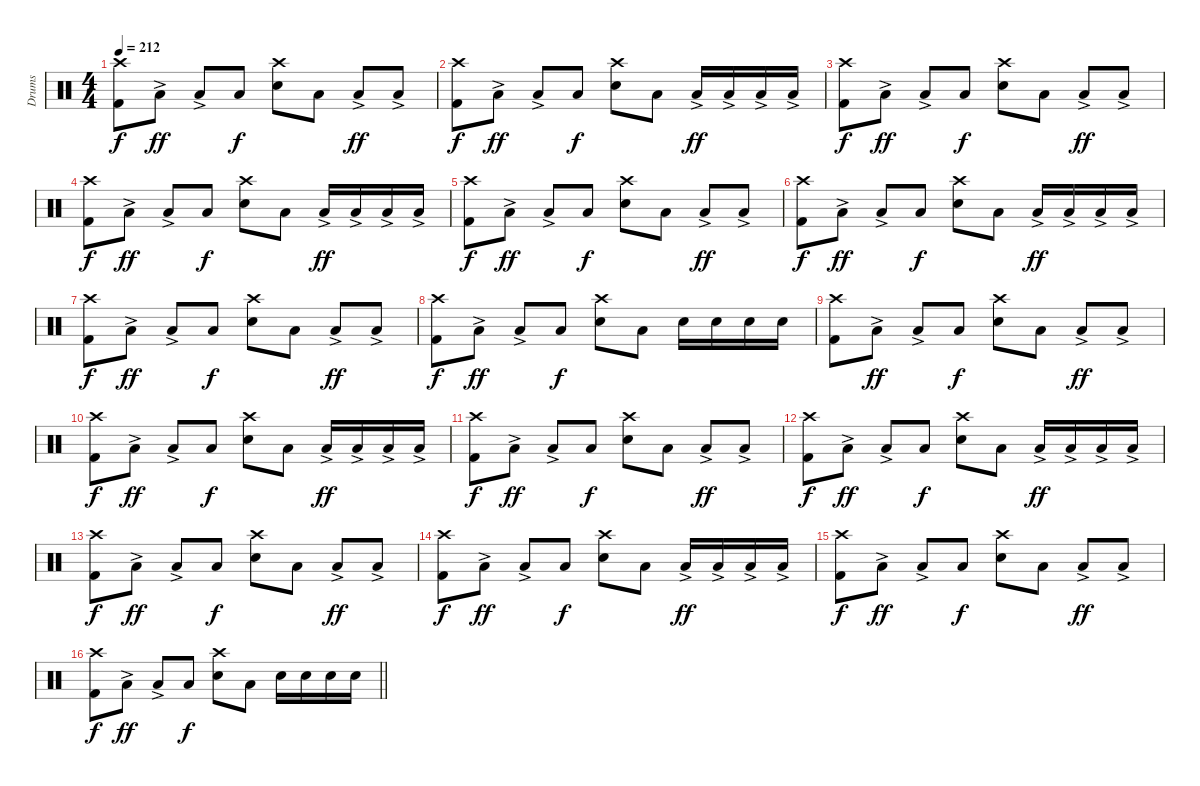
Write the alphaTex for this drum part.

\track ("Drums" "Drums") {instrument percussion}
\staff {score}
\articulation defaults
\ts (4 4)
\tempo 212
\clef neutral
\ks c
("Crash high (hit)" "Kick (hit) 2").8{dy f} "Low Floor Tom (hit)"{ac}.8{dy ff} "Low Floor Tom (hit)"{ac}.8 "Low Floor Tom (hit)".8{dy f} ("Crash high (hit)" "Snare (hit) 2").8 "Low Floor Tom (hit)".8 "Low Floor Tom (hit)"{ac}.8{dy ff} "Low Floor Tom (hit)"{ac}.8 |
("Crash high (hit)" "Kick (hit) 2").8{dy f} "Low Floor Tom (hit)"{ac}.8{dy ff} "Low Floor Tom (hit)"{ac}.8 "Low Floor Tom (hit)".8{dy f} ("Crash high (hit)" "Snare (hit) 2").8 "Low Floor Tom (hit)".8 "Low Floor Tom (hit)"{ac}.16{dy ff} "Low Floor Tom (hit)"{ac}.16 "Low Floor Tom (hit)"{ac}.16 "Low Floor Tom (hit)"{ac}.16 |
("Crash high (hit)" "Kick (hit) 2").8{dy f} "Low Floor Tom (hit)"{ac}.8{dy ff} "Low Floor Tom (hit)"{ac}.8 "Low Floor Tom (hit)".8{dy f} ("Crash high (hit)" "Snare (hit) 2").8 "Low Floor Tom (hit)".8 "Low Floor Tom (hit)"{ac}.8{dy ff} "Low Floor Tom (hit)"{ac}.8 |
("Crash high (hit)" "Kick (hit) 2").8{dy f} "Low Floor Tom (hit)"{ac}.8{dy ff} "Low Floor Tom (hit)"{ac}.8 "Low Floor Tom (hit)".8{dy f} ("Crash high (hit)" "Snare (hit) 2").8 "Low Floor Tom (hit)".8 "Low Floor Tom (hit)"{ac}.16{dy ff} "Low Floor Tom (hit)"{ac}.16 "Low Floor Tom (hit)"{ac}.16 "Low Floor Tom (hit)"{ac}.16 |
("Crash high (hit)" "Kick (hit) 2").8{dy f} "Low Floor Tom (hit)"{ac}.8{dy ff} "Low Floor Tom (hit)"{ac}.8 "Low Floor Tom (hit)".8{dy f} ("Crash high (hit)" "Snare (hit) 2").8 "Low Floor Tom (hit)".8 "Low Floor Tom (hit)"{ac}.8{dy ff} "Low Floor Tom (hit)"{ac}.8 |
("Crash high (hit)" "Kick (hit) 2").8{dy f} "Low Floor Tom (hit)"{ac}.8{dy ff} "Low Floor Tom (hit)"{ac}.8 "Low Floor Tom (hit)".8{dy f} ("Crash high (hit)" "Snare (hit) 2").8 "Low Floor Tom (hit)".8 "Low Floor Tom (hit)"{ac}.16{dy ff} "Low Floor Tom (hit)"{ac}.16 "Low Floor Tom (hit)"{ac}.16 "Low Floor Tom (hit)"{ac}.16 |
("Crash high (hit)" "Kick (hit) 2").8{dy f} "Low Floor Tom (hit)"{ac}.8{dy ff} "Low Floor Tom (hit)"{ac}.8 "Low Floor Tom (hit)".8{dy f} ("Crash high (hit)" "Snare (hit) 2").8 "Low Floor Tom (hit)".8 "Low Floor Tom (hit)"{ac}.8{dy ff} "Low Floor Tom (hit)"{ac}.8 |
("Crash high (hit)" "Kick (hit) 2").8{dy f} "Low Floor Tom (hit)"{ac}.8{dy ff} "Low Floor Tom (hit)"{ac}.8 "Low Floor Tom (hit)".8{dy f} ("Crash high (hit)" "Snare (hit) 2").8 "Low Floor Tom (hit)".8 "Snare (hit) 2".16 "Snare (hit) 2".16 "Snare (hit) 2".16 "Snare (hit) 2".16 |
("Crash high (hit)" "Kick (hit) 2").8 "Low Floor Tom (hit)"{ac}.8{dy ff} "Low Floor Tom (hit)"{ac}.8 "Low Floor Tom (hit)".8{dy f} ("Crash high (hit)" "Snare (hit) 2").8 "Low Floor Tom (hit)".8 "Low Floor Tom (hit)"{ac}.8{dy ff} "Low Floor Tom (hit)"{ac}.8 |
("Crash high (hit)" "Kick (hit) 2").8{dy f} "Low Floor Tom (hit)"{ac}.8{dy ff} "Low Floor Tom (hit)"{ac}.8 "Low Floor Tom (hit)".8{dy f} ("Crash high (hit)" "Snare (hit) 2").8 "Low Floor Tom (hit)".8 "Low Floor Tom (hit)"{ac}.16{dy ff} "Low Floor Tom (hit)"{ac}.16 "Low Floor Tom (hit)"{ac}.16 "Low Floor Tom (hit)"{ac}.16 |
("Crash high (hit)" "Kick (hit) 2").8{dy f} "Low Floor Tom (hit)"{ac}.8{dy ff} "Low Floor Tom (hit)"{ac}.8 "Low Floor Tom (hit)".8{dy f} ("Crash high (hit)" "Snare (hit) 2").8 "Low Floor Tom (hit)".8 "Low Floor Tom (hit)"{ac}.8{dy ff} "Low Floor Tom (hit)"{ac}.8 |
("Crash high (hit)" "Kick (hit) 2").8{dy f} "Low Floor Tom (hit)"{ac}.8{dy ff} "Low Floor Tom (hit)"{ac}.8 "Low Floor Tom (hit)".8{dy f} ("Crash high (hit)" "Snare (hit) 2").8 "Low Floor Tom (hit)".8 "Low Floor Tom (hit)"{ac}.16{dy ff} "Low Floor Tom (hit)"{ac}.16 "Low Floor Tom (hit)"{ac}.16 "Low Floor Tom (hit)"{ac}.16 |
("Crash high (hit)" "Kick (hit) 2").8{dy f} "Low Floor Tom (hit)"{ac}.8{dy ff} "Low Floor Tom (hit)"{ac}.8 "Low Floor Tom (hit)".8{dy f} ("Crash high (hit)" "Snare (hit) 2").8 "Low Floor Tom (hit)".8 "Low Floor Tom (hit)"{ac}.8{dy ff} "Low Floor Tom (hit)"{ac}.8 |
("Crash high (hit)" "Kick (hit) 2").8{dy f} "Low Floor Tom (hit)"{ac}.8{dy ff} "Low Floor Tom (hit)"{ac}.8 "Low Floor Tom (hit)".8{dy f} ("Crash high (hit)" "Snare (hit) 2").8 "Low Floor Tom (hit)".8 "Low Floor Tom (hit)"{ac}.16{dy ff} "Low Floor Tom (hit)"{ac}.16 "Low Floor Tom (hit)"{ac}.16 "Low Floor Tom (hit)"{ac}.16 |
("Crash high (hit)" "Kick (hit) 2").8{dy f} "Low Floor Tom (hit)"{ac}.8{dy ff} "Low Floor Tom (hit)"{ac}.8 "Low Floor Tom (hit)".8{dy f} ("Crash high (hit)" "Snare (hit) 2").8 "Low Floor Tom (hit)".8 "Low Floor Tom (hit)"{ac}.8{dy ff} "Low Floor Tom (hit)"{ac}.8 |
\barLineRight lightlight
("Crash high (hit)" "Kick (hit) 2").8{dy f} "Low Floor Tom (hit)"{ac}.8{dy ff} "Low Floor Tom (hit)"{ac}.8 "Low Floor Tom (hit)".8{dy f} ("Crash high (hit)" "Snare (hit) 2").8 "Low Floor Tom (hit)".8 "Snare (hit) 2".16 "Snare (hit) 2".16 "Snare (hit) 2".16 "Snare (hit) 2".16
